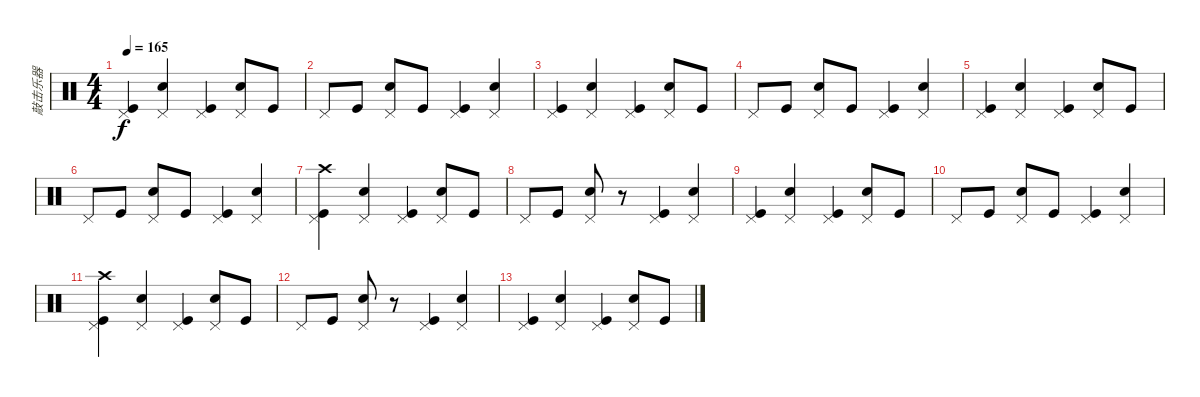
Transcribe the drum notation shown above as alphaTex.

\track ("敲击乐器" "敲击乐器") {instrument percussion}
\staff {score}
\articulation defaults
\ts (4 4)
\tempo 165
\clef neutral
\ks c
("Pedal Hi-Hat (hit)" "Kick (hit)").4{dy f} ("Pedal Hi-Hat (hit)" "Snare (hit) 2").4 ("Pedal Hi-Hat (hit)" "Kick (hit)").4 ("Pedal Hi-Hat (hit)" "Snare (hit) 2").8 "Kick (hit)".8 |
"Pedal Hi-Hat (hit)".8 "Kick (hit)".8 ("Pedal Hi-Hat (hit)" "Snare (hit) 2").8 "Kick (hit)".8 ("Kick (hit)" "Pedal Hi-Hat (hit)").4 ("Snare (hit) 2" "Pedal Hi-Hat (hit)").4 |
("Pedal Hi-Hat (hit)" "Kick (hit)").4 ("Pedal Hi-Hat (hit)" "Snare (hit) 2").4 ("Pedal Hi-Hat (hit)" "Kick (hit)").4 ("Pedal Hi-Hat (hit)" "Snare (hit) 2").8 "Kick (hit)".8 |
"Pedal Hi-Hat (hit)".8 "Kick (hit)".8 ("Pedal Hi-Hat (hit)" "Snare (hit) 2").8 "Kick (hit)".8 ("Kick (hit)" "Pedal Hi-Hat (hit)").4 ("Snare (hit) 2" "Pedal Hi-Hat (hit)").4 |
("Pedal Hi-Hat (hit)" "Kick (hit)").4 ("Pedal Hi-Hat (hit)" "Snare (hit) 2").4 ("Pedal Hi-Hat (hit)" "Kick (hit)").4 ("Pedal Hi-Hat (hit)" "Snare (hit) 2").8 "Kick (hit)".8 |
"Pedal Hi-Hat (hit)".8 "Kick (hit)".8 ("Pedal Hi-Hat (hit)" "Snare (hit) 2").8 "Kick (hit)".8 ("Kick (hit)" "Pedal Hi-Hat (hit)").4 ("Snare (hit) 2" "Pedal Hi-Hat (hit)").4 |
("Crash high (hit)" "Pedal Hi-Hat (hit)" "Kick (hit)").4 ("Pedal Hi-Hat (hit)" "Snare (hit) 2").4 ("Pedal Hi-Hat (hit)" "Kick (hit)").4 ("Pedal Hi-Hat (hit)" "Snare (hit) 2").8 "Kick (hit)".8 |
"Pedal Hi-Hat (hit)".8 "Kick (hit)".8 ("Pedal Hi-Hat (hit)" "Snare (hit) 2").8 r.8 ("Kick (hit)" "Pedal Hi-Hat (hit)").4 ("Snare (hit) 2" "Pedal Hi-Hat (hit)").4 |
("Pedal Hi-Hat (hit)" "Kick (hit)").4 ("Pedal Hi-Hat (hit)" "Snare (hit) 2").4 ("Pedal Hi-Hat (hit)" "Kick (hit)").4 ("Pedal Hi-Hat (hit)" "Snare (hit) 2").8 "Kick (hit)".8 |
"Pedal Hi-Hat (hit)".8 "Kick (hit)".8 ("Pedal Hi-Hat (hit)" "Snare (hit) 2").8 "Kick (hit)".8 ("Kick (hit)" "Pedal Hi-Hat (hit)").4 ("Snare (hit) 2" "Pedal Hi-Hat (hit)").4 |
("Crash high (hit)" "Pedal Hi-Hat (hit)" "Kick (hit)").4 ("Pedal Hi-Hat (hit)" "Snare (hit) 2").4 ("Pedal Hi-Hat (hit)" "Kick (hit)").4 ("Pedal Hi-Hat (hit)" "Snare (hit) 2").8 "Kick (hit)".8 |
"Pedal Hi-Hat (hit)".8 "Kick (hit)".8 ("Pedal Hi-Hat (hit)" "Snare (hit) 2").8 r.8 ("Kick (hit)" "Pedal Hi-Hat (hit)").4 ("Snare (hit) 2" "Pedal Hi-Hat (hit)").4 |
("Pedal Hi-Hat (hit)" "Kick (hit)").4 ("Pedal Hi-Hat (hit)" "Snare (hit) 2").4 ("Pedal Hi-Hat (hit)" "Kick (hit)").4 ("Pedal Hi-Hat (hit)" "Snare (hit) 2").8 "Kick (hit)".8
